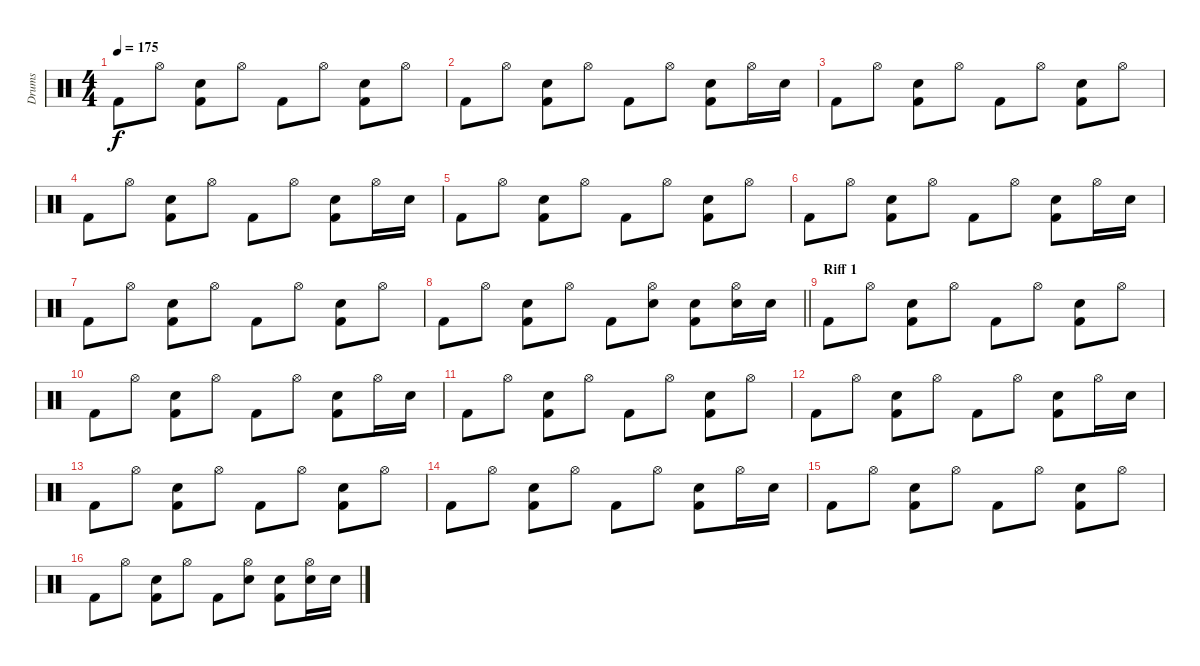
\track ("Drums" "Drums") {instrument percussion}
\staff {score}
\articulation defaults
\ts (4 4)
\tempo 175
\clef neutral
\ks c "Kick (hit) 2".8{dy f} "Hi-Hat (open)".8
("Kick (hit) 2" "Snare (hit) 2").8 "Hi-Hat (open)".8 "Kick (hit) 2".8 "Hi-Hat (open)".8 ("Kick (hit) 2" "Snare (hit) 2").8 "Hi-Hat (open)".8 |
"Kick (hit) 2".8 "Hi-Hat (open)".8 ("Kick (hit) 2" "Snare (hit) 2").8 "Hi-Hat (open)".8 "Kick (hit) 2".8 "Hi-Hat (open)".8 ("Kick (hit) 2" "Snare (hit) 2").8 "Hi-Hat (open)".16 "Snare (hit) 2".16 |
"Kick (hit) 2".8 "Hi-Hat (open)".8 ("Kick (hit) 2" "Snare (hit) 2").8 "Hi-Hat (open)".8 "Kick (hit) 2".8 "Hi-Hat (open)".8 ("Kick (hit) 2" "Snare (hit) 2").8 "Hi-Hat (open)".8 |
"Kick (hit) 2".8 "Hi-Hat (open)".8 ("Kick (hit) 2" "Snare (hit) 2").8 "Hi-Hat (open)".8 "Kick (hit) 2".8 "Hi-Hat (open)".8 ("Kick (hit) 2" "Snare (hit) 2").8 "Hi-Hat (open)".16 "Snare (hit) 2".16 |
"Kick (hit) 2".8 "Hi-Hat (open)".8 ("Kick (hit) 2" "Snare (hit) 2").8 "Hi-Hat (open)".8 "Kick (hit) 2".8 "Hi-Hat (open)".8 ("Kick (hit) 2" "Snare (hit) 2").8 "Hi-Hat (open)".8 |
"Kick (hit) 2".8 "Hi-Hat (open)".8 ("Kick (hit) 2" "Snare (hit) 2").8 "Hi-Hat (open)".8 "Kick (hit) 2".8 "Hi-Hat (open)".8 ("Kick (hit) 2" "Snare (hit) 2").8 "Hi-Hat (open)".16 "Snare (hit) 2".16 |
"Kick (hit) 2".8 "Hi-Hat (open)".8 ("Kick (hit) 2" "Snare (hit) 2").8 "Hi-Hat (open)".8 "Kick (hit) 2".8 "Hi-Hat (open)".8 ("Kick (hit) 2" "Snare (hit) 2").8 "Hi-Hat (open)".8 |
\barLineRight lightlight "Kick (hit) 2".8 "Hi-Hat (open)".8
("Kick (hit) 2" "Snare (hit) 2").8 "Hi-Hat (open)".8 "Kick (hit) 2".8 ("Hi-Hat (open)" "Snare (hit) 2").8 ("Kick (hit) 2" "Snare (hit) 2").8 ("Hi-Hat (open)" "Snare (hit) 2").16 "Snare (hit) 2".16 |
\section ("" "Riff 1")
"Kick (hit) 2".8 "Hi-Hat (open)".8 ("Kick (hit) 2" "Snare (hit) 2").8 "Hi-Hat (open)".8 "Kick (hit) 2".8 "Hi-Hat (open)".8 ("Kick (hit) 2" "Snare (hit) 2").8 "Hi-Hat (open)".8 |
"Kick (hit) 2".8 "Hi-Hat (open)".8 ("Kick (hit) 2" "Snare (hit) 2").8 "Hi-Hat (open)".8 "Kick (hit) 2".8 "Hi-Hat (open)".8 ("Kick (hit) 2" "Snare (hit) 2").8 "Hi-Hat (open)".16 "Snare (hit) 2".16 |
"Kick (hit) 2".8 "Hi-Hat (open)".8 ("Kick (hit) 2" "Snare (hit) 2").8 "Hi-Hat (open)".8 "Kick (hit) 2".8 "Hi-Hat (open)".8 ("Kick (hit) 2" "Snare (hit) 2").8 "Hi-Hat (open)".8 |
"Kick (hit) 2".8 "Hi-Hat (open)".8 ("Kick (hit) 2" "Snare (hit) 2").8 "Hi-Hat (open)".8 "Kick (hit) 2".8 "Hi-Hat (open)".8 ("Kick (hit) 2" "Snare (hit) 2").8 "Hi-Hat (open)".16 "Snare (hit) 2".16 |
"Kick (hit) 2".8 "Hi-Hat (open)".8 ("Kick (hit) 2" "Snare (hit) 2").8 "Hi-Hat (open)".8 "Kick (hit) 2".8 "Hi-Hat (open)".8 ("Kick (hit) 2" "Snare (hit) 2").8 "Hi-Hat (open)".8 |
"Kick (hit) 2".8 "Hi-Hat (open)".8 ("Kick (hit) 2" "Snare (hit) 2").8 "Hi-Hat (open)".8 "Kick (hit) 2".8 "Hi-Hat (open)".8 ("Kick (hit) 2" "Snare (hit) 2").8 "Hi-Hat (open)".16 "Snare (hit) 2".16 |
"Kick (hit) 2".8 "Hi-Hat (open)".8 ("Kick (hit) 2" "Snare (hit) 2").8 "Hi-Hat (open)".8 "Kick (hit) 2".8 "Hi-Hat (open)".8 ("Kick (hit) 2" "Snare (hit) 2").8 "Hi-Hat (open)".8 |
"Kick (hit) 2".8 "Hi-Hat (open)".8 ("Kick (hit) 2" "Snare (hit) 2").8 "Hi-Hat (open)".8 "Kick (hit) 2".8 ("Hi-Hat (open)" "Snare (hit) 2").8 ("Kick (hit) 2" "Snare (hit) 2").8 ("Hi-Hat (open)" "Snare (hit) 2").16 "Snare (hit) 2".16
